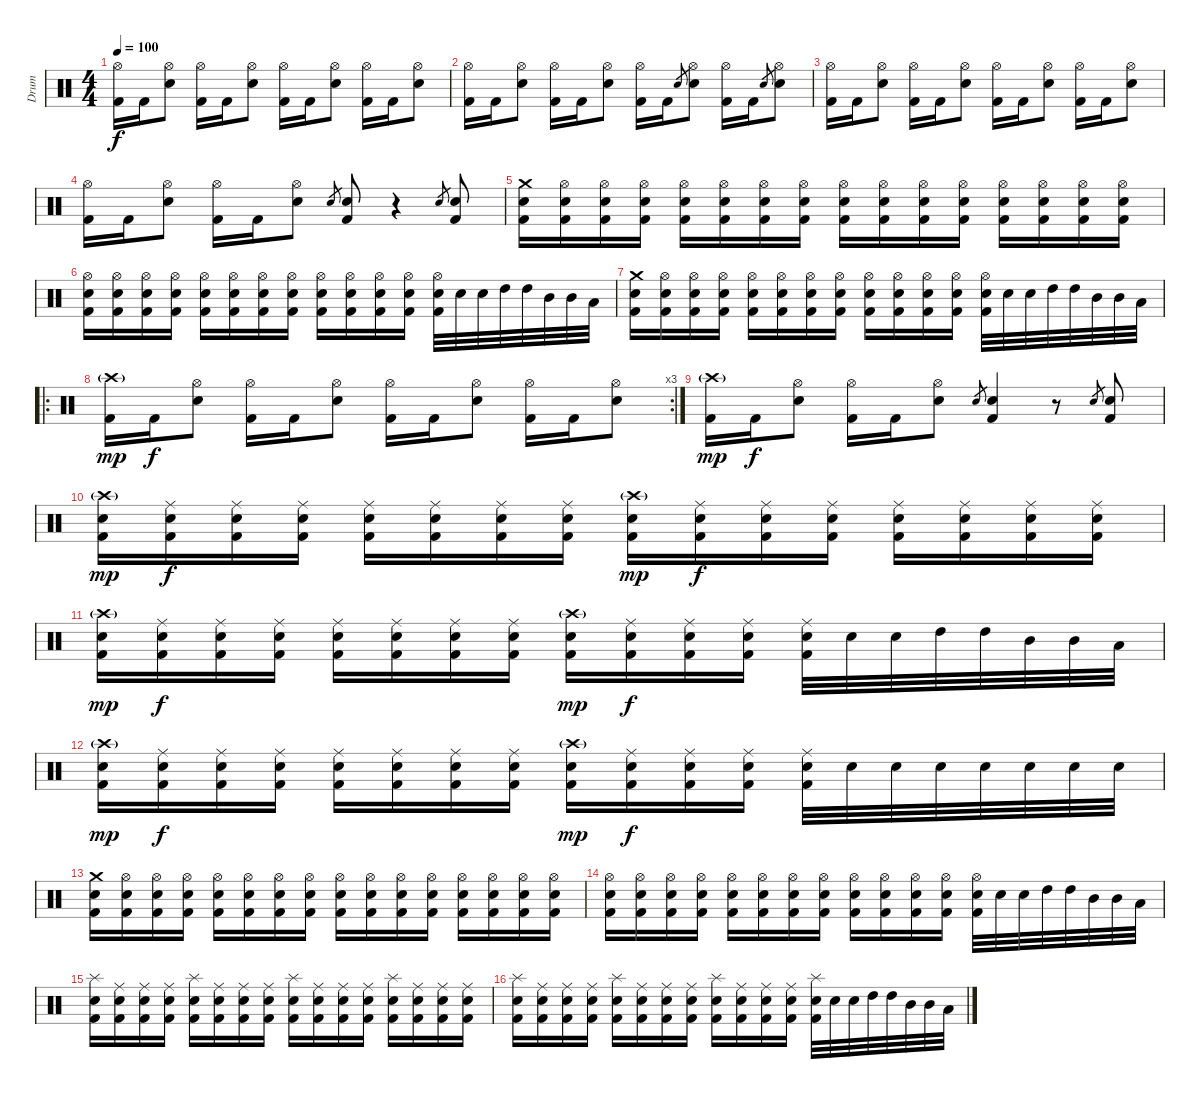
\track ("Drum" "Drum") {instrument percussion}
\staff {score}
\articulation defaults
\ts (4 4)
\tempo 100
\clef neutral
\ks c
("Hi-Hat (open)" "Kick (hit) 2").16{dy f} "Kick (hit) 2".16 ("Hi-Hat (open)" "Electric Snare (hit)").8 ("Hi-Hat (open)" "Kick (hit) 2").16 "Kick (hit) 2".16 ("Hi-Hat (open)" "Electric Snare (hit)").8 ("Hi-Hat (open)" "Kick (hit) 2").16 "Kick (hit) 2".16 ("Hi-Hat (open)" "Electric Snare (hit)").8 ("Hi-Hat (open)" "Kick (hit) 2").16 "Kick (hit) 2".16 ("Hi-Hat (open)" "Electric Snare (hit)").8 |
("Hi-Hat (open)" "Kick (hit) 2").16 "Kick (hit) 2".16 ("Hi-Hat (open)" "Electric Snare (hit)").8 ("Hi-Hat (open)" "Kick (hit) 2").16 "Kick (hit) 2".16 ("Hi-Hat (open)" "Electric Snare (hit)").8 ("Hi-Hat (open)" "Kick (hit) 2").16 "Kick (hit) 2".16 "Electric Snare (hit)".8{gr} ("Hi-Hat (open)" "Electric Snare (hit)").8 ("Hi-Hat (open)" "Kick (hit) 2").16 "Kick (hit) 2".16 "Electric Snare (hit)".8{gr} ("Hi-Hat (open)" "Electric Snare (hit)").8 |
("Hi-Hat (open)" "Kick (hit) 2").16 "Kick (hit) 2".16 ("Hi-Hat (open)" "Electric Snare (hit)").8 ("Hi-Hat (open)" "Kick (hit) 2").16 "Kick (hit) 2".16 ("Hi-Hat (open)" "Electric Snare (hit)").8 ("Hi-Hat (open)" "Kick (hit) 2").16 "Kick (hit) 2".16 ("Hi-Hat (open)" "Electric Snare (hit)").8 ("Hi-Hat (open)" "Kick (hit) 2").16 "Kick (hit) 2".16 ("Hi-Hat (open)" "Electric Snare (hit)").8 |
("Hi-Hat (open)" "Kick (hit) 2").16 "Kick (hit) 2".16 ("Hi-Hat (open)" "Electric Snare (hit)").8 ("Hi-Hat (open)" "Kick (hit) 2").16 "Kick (hit) 2".16 ("Hi-Hat (open)" "Electric Snare (hit)").8 "Electric Snare (hit)".8{gr} ("Electric Snare (hit)" "Kick (hit) 2").8 r.4 "Electric Snare (hit)".8{gr} ("Electric Snare (hit)" "Kick (hit) 2").8 |
("Crash medium (hit)" "Electric Snare (hit)" "Kick (hit) 2").16 ("Hi-Hat (open)" "Electric Snare (hit)" "Kick (hit) 2").16 ("Hi-Hat (open)" "Electric Snare (hit)" "Kick (hit) 2").16 ("Hi-Hat (open)" "Electric Snare (hit)" "Kick (hit) 2").16 ("Hi-Hat (open)" "Electric Snare (hit)" "Kick (hit) 2").16 ("Hi-Hat (open)" "Electric Snare (hit)" "Kick (hit) 2").16 ("Hi-Hat (open)" "Electric Snare (hit)" "Kick (hit) 2").16 ("Hi-Hat (open)" "Electric Snare (hit)" "Kick (hit) 2").16 ("Hi-Hat (open)" "Electric Snare (hit)" "Kick (hit) 2").16 ("Hi-Hat (open)" "Electric Snare (hit)" "Kick (hit) 2").16 ("Hi-Hat (open)" "Electric Snare (hit)" "Kick (hit) 2").16 ("Hi-Hat (open)" "Electric Snare (hit)" "Kick (hit) 2").16 ("Hi-Hat (open)" "Electric Snare (hit)" "Kick (hit) 2").16 ("Hi-Hat (open)" "Electric Snare (hit)" "Kick (hit) 2").16 ("Hi-Hat (open)" "Electric Snare (hit)" "Kick (hit) 2").16 ("Hi-Hat (open)" "Electric Snare (hit)" "Kick (hit) 2").16 |
("Hi-Hat (open)" "Electric Snare (hit)" "Kick (hit) 2").16 ("Hi-Hat (open)" "Electric Snare (hit)" "Kick (hit) 2").16 ("Hi-Hat (open)" "Electric Snare (hit)" "Kick (hit) 2").16 ("Hi-Hat (open)" "Electric Snare (hit)" "Kick (hit) 2").16 ("Hi-Hat (open)" "Electric Snare (hit)" "Kick (hit) 2").16 ("Hi-Hat (open)" "Electric Snare (hit)" "Kick (hit) 2").16 ("Hi-Hat (open)" "Electric Snare (hit)" "Kick (hit) 2").16 ("Hi-Hat (open)" "Electric Snare (hit)" "Kick (hit) 2").16 ("Hi-Hat (open)" "Electric Snare (hit)" "Kick (hit) 2").16 ("Hi-Hat (open)" "Electric Snare (hit)" "Kick (hit) 2").16 ("Hi-Hat (open)" "Electric Snare (hit)" "Kick (hit) 2").16 ("Hi-Hat (open)" "Electric Snare (hit)" "Kick (hit) 2").16 ("Hi-Hat (open)" "Electric Snare (hit)" "Kick (hit) 2").32 "Electric Snare (hit)".32 "Electric Snare (hit)".32 "High Tom (hit)".32 "High Tom (hit)".32 "Mid Tom (hit)".32 "Mid Tom (hit)".32 "Low Tom (hit)".32 |
("Crash medium (hit)" "Electric Snare (hit)" "Kick (hit) 2").16 ("Hi-Hat (open)" "Electric Snare (hit)" "Kick (hit) 2").16 ("Hi-Hat (open)" "Electric Snare (hit)" "Kick (hit) 2").16 ("Hi-Hat (open)" "Electric Snare (hit)" "Kick (hit) 2").16 ("Hi-Hat (open)" "Electric Snare (hit)" "Kick (hit) 2").16 ("Hi-Hat (open)" "Electric Snare (hit)" "Kick (hit) 2").16 ("Hi-Hat (open)" "Electric Snare (hit)" "Kick (hit) 2").16 ("Hi-Hat (open)" "Electric Snare (hit)" "Kick (hit) 2").16 ("Hi-Hat (open)" "Electric Snare (hit)" "Kick (hit) 2").16 ("Hi-Hat (open)" "Electric Snare (hit)" "Kick (hit) 2").16 ("Hi-Hat (open)" "Electric Snare (hit)" "Kick (hit) 2").16 ("Hi-Hat (open)" "Electric Snare (hit)" "Kick (hit) 2").16 ("Hi-Hat (open)" "Electric Snare (hit)" "Kick (hit) 2").32 "Electric Snare (hit)".32 "Electric Snare (hit)".32 "High Tom (hit)".32 "High Tom (hit)".32 "Mid Tom (hit)".32 "Mid Tom (hit)".32 "Low Tom (hit)".32 |
\ro
\rc 3
("Crash high (hit)"{g} "Kick (hit) 2").16{dy mp} "Kick (hit) 2".16{dy f} ("Hi-Hat (open)" "Electric Snare (hit)").8 ("Hi-Hat (open)" "Kick (hit) 2").16 "Kick (hit) 2".16 ("Hi-Hat (open)" "Electric Snare (hit)").8 ("Hi-Hat (open)" "Kick (hit) 2").16 "Kick (hit) 2".16 ("Hi-Hat (open)" "Electric Snare (hit)").8 ("Hi-Hat (open)" "Kick (hit) 2").16 "Kick (hit) 2".16 ("Hi-Hat (open)" "Electric Snare (hit)").8 |
("Crash high (hit)"{g} "Kick (hit) 2").16{dy mp} "Kick (hit) 2".16{dy f} ("Hi-Hat (open)" "Electric Snare (hit)").8 ("Hi-Hat (open)" "Kick (hit) 2").16 "Kick (hit) 2".16 ("Hi-Hat (open)" "Electric Snare (hit)").8 "Electric Snare (hit)".8{gr} ("Electric Snare (hit)" "Kick (hit) 2").4 r.8 "Electric Snare (hit)".8{gr} ("Electric Snare (hit)" "Kick (hit) 2").8 |
("Crash high (hit)"{g} "Electric Snare (hit)" "Kick (hit) 2").16{dy mp} ("Ride (middle)" "Electric Snare (hit)" "Kick (hit) 2").16{dy f} ("Ride (middle)" "Electric Snare (hit)" "Kick (hit) 2").16 ("Ride (middle)" "Electric Snare (hit)" "Kick (hit) 2").16 ("Ride (middle)" "Electric Snare (hit)" "Kick (hit) 2").16 ("Ride (middle)" "Electric Snare (hit)" "Kick (hit) 2").16 ("Ride (middle)" "Electric Snare (hit)" "Kick (hit) 2").16 ("Ride (middle)" "Electric Snare (hit)" "Kick (hit) 2").16 ("Crash high (hit)"{g} "Electric Snare (hit)" "Kick (hit) 2").16{dy mp} ("Ride (middle)" "Electric Snare (hit)" "Kick (hit) 2").16{dy f} ("Ride (middle)" "Electric Snare (hit)" "Kick (hit) 2").16 ("Ride (middle)" "Electric Snare (hit)" "Kick (hit) 2").16 ("Ride (middle)" "Electric Snare (hit)" "Kick (hit) 2").16 ("Ride (middle)" "Electric Snare (hit)" "Kick (hit) 2").16 ("Ride (middle)" "Electric Snare (hit)" "Kick (hit) 2").16 ("Ride (middle)" "Electric Snare (hit)" "Kick (hit) 2").16 |
("Crash high (hit)"{g} "Electric Snare (hit)" "Kick (hit) 2").16{dy mp} ("Ride (middle)" "Electric Snare (hit)" "Kick (hit) 2").16{dy f} ("Ride (middle)" "Electric Snare (hit)" "Kick (hit) 2").16 ("Ride (middle)" "Electric Snare (hit)" "Kick (hit) 2").16 ("Ride (middle)" "Electric Snare (hit)" "Kick (hit) 2").16 ("Ride (middle)" "Electric Snare (hit)" "Kick (hit) 2").16 ("Ride (middle)" "Electric Snare (hit)" "Kick (hit) 2").16 ("Ride (middle)" "Electric Snare (hit)" "Kick (hit) 2").16 ("Crash high (hit)"{g} "Electric Snare (hit)" "Kick (hit) 2").16{dy mp} ("Ride (middle)" "Electric Snare (hit)" "Kick (hit) 2").16{dy f} ("Ride (middle)" "Electric Snare (hit)" "Kick (hit) 2").16 ("Ride (middle)" "Electric Snare (hit)" "Kick (hit) 2").16 ("Ride (middle)" "Electric Snare (hit)" "Kick (hit) 2").32 "Electric Snare (hit)".32 "Electric Snare (hit)".32 "High Tom (hit)".32 "High Tom (hit)".32 "Mid Tom (hit)".32 "Mid Tom (hit)".32 "Low Tom (hit)".32 |
("Crash high (hit)"{g} "Electric Snare (hit)" "Kick (hit) 2").16{dy mp} ("Ride (middle)" "Electric Snare (hit)" "Kick (hit) 2").16{dy f} ("Ride (middle)" "Electric Snare (hit)" "Kick (hit) 2").16 ("Ride (middle)" "Electric Snare (hit)" "Kick (hit) 2").16 ("Ride (middle)" "Electric Snare (hit)" "Kick (hit) 2").16 ("Ride (middle)" "Electric Snare (hit)" "Kick (hit) 2").16 ("Ride (middle)" "Electric Snare (hit)" "Kick (hit) 2").16 ("Ride (middle)" "Electric Snare (hit)" "Kick (hit) 2").16 ("Crash high (hit)"{g} "Electric Snare (hit)" "Kick (hit) 2").16{dy mp} ("Ride (middle)" "Electric Snare (hit)" "Kick (hit) 2").16{dy f} ("Ride (middle)" "Electric Snare (hit)" "Kick (hit) 2").16 ("Ride (middle)" "Electric Snare (hit)" "Kick (hit) 2").16 ("Ride (middle)" "Electric Snare (hit)" "Kick (hit) 2").32 "Electric Snare (hit)".32 "Electric Snare (hit)".32 "Electric Snare (hit)".32 "Electric Snare (hit)".32 "Electric Snare (hit)".32 "Electric Snare (hit)".32 "Electric Snare (hit)".32 |
("Crash medium (hit)" "Electric Snare (hit)" "Kick (hit) 2").16 ("Hi-Hat (open)" "Electric Snare (hit)" "Kick (hit) 2").16 ("Hi-Hat (open)" "Electric Snare (hit)" "Kick (hit) 2").16 ("Hi-Hat (open)" "Electric Snare (hit)" "Kick (hit) 2").16 ("Hi-Hat (open)" "Electric Snare (hit)" "Kick (hit) 2").16 ("Hi-Hat (open)" "Electric Snare (hit)" "Kick (hit) 2").16 ("Hi-Hat (open)" "Electric Snare (hit)" "Kick (hit) 2").16 ("Hi-Hat (open)" "Electric Snare (hit)" "Kick (hit) 2").16 ("Hi-Hat (open)" "Electric Snare (hit)" "Kick (hit) 2").16 ("Hi-Hat (open)" "Electric Snare (hit)" "Kick (hit) 2").16 ("Hi-Hat (open)" "Electric Snare (hit)" "Kick (hit) 2").16 ("Hi-Hat (open)" "Electric Snare (hit)" "Kick (hit) 2").16 ("Hi-Hat (open)" "Electric Snare (hit)" "Kick (hit) 2").16 ("Hi-Hat (open)" "Electric Snare (hit)" "Kick (hit) 2").16 ("Hi-Hat (open)" "Electric Snare (hit)" "Kick (hit) 2").16 ("Hi-Hat (open)" "Electric Snare (hit)" "Kick (hit) 2").16 |
("Hi-Hat (open)" "Electric Snare (hit)" "Kick (hit) 2").16 ("Hi-Hat (open)" "Electric Snare (hit)" "Kick (hit) 2").16 ("Hi-Hat (open)" "Electric Snare (hit)" "Kick (hit) 2").16 ("Hi-Hat (open)" "Electric Snare (hit)" "Kick (hit) 2").16 ("Hi-Hat (open)" "Electric Snare (hit)" "Kick (hit) 2").16 ("Hi-Hat (open)" "Electric Snare (hit)" "Kick (hit) 2").16 ("Hi-Hat (open)" "Electric Snare (hit)" "Kick (hit) 2").16 ("Hi-Hat (open)" "Electric Snare (hit)" "Kick (hit) 2").16 ("Hi-Hat (open)" "Electric Snare (hit)" "Kick (hit) 2").16 ("Hi-Hat (open)" "Electric Snare (hit)" "Kick (hit) 2").16 ("Hi-Hat (open)" "Electric Snare (hit)" "Kick (hit) 2").16 ("Hi-Hat (open)" "Electric Snare (hit)" "Kick (hit) 2").16 ("Hi-Hat (open)" "Electric Snare (hit)" "Kick (hit) 2").32 "Electric Snare (hit)".32 "Electric Snare (hit)".32 "High Tom (hit)".32 "High Tom (hit)".32 "Mid Tom (hit)".32 "Mid Tom (hit)".32 "Low Tom (hit)".32 |
("Splash (hit)" "Electric Snare (hit)" "Kick (hit) 2").16 ("Ride (middle)" "Electric Snare (hit)" "Kick (hit) 2").16 ("Ride (middle)" "Electric Snare (hit)" "Kick (hit) 2").16 ("Ride (middle)" "Electric Snare (hit)" "Kick (hit) 2").16 ("Splash (hit)" "Electric Snare (hit)" "Kick (hit) 2").16 ("Ride (middle)" "Electric Snare (hit)" "Kick (hit) 2").16 ("Ride (middle)" "Electric Snare (hit)" "Kick (hit) 2").16 ("Ride (middle)" "Electric Snare (hit)" "Kick (hit) 2").16 ("Splash (hit)" "Electric Snare (hit)" "Kick (hit) 2").16 ("Ride (middle)" "Electric Snare (hit)" "Kick (hit) 2").16 ("Ride (middle)" "Electric Snare (hit)" "Kick (hit) 2").16 ("Ride (middle)" "Electric Snare (hit)" "Kick (hit) 2").16 ("Splash (hit)" "Electric Snare (hit)" "Kick (hit) 2").16 ("Ride (middle)" "Electric Snare (hit)" "Kick (hit) 2").16 ("Ride (middle)" "Electric Snare (hit)" "Kick (hit) 2").16 ("Ride (middle)" "Electric Snare (hit)" "Kick (hit) 2").16 |
("Splash (hit)" "Electric Snare (hit)" "Kick (hit) 2").16 ("Ride (middle)" "Electric Snare (hit)" "Kick (hit) 2").16 ("Ride (middle)" "Electric Snare (hit)" "Kick (hit) 2").16 ("Ride (middle)" "Electric Snare (hit)" "Kick (hit) 2").16 ("Splash (hit)" "Electric Snare (hit)" "Kick (hit) 2").16 ("Ride (middle)" "Electric Snare (hit)" "Kick (hit) 2").16 ("Ride (middle)" "Electric Snare (hit)" "Kick (hit) 2").16 ("Ride (middle)" "Electric Snare (hit)" "Kick (hit) 2").16 ("Splash (hit)" "Electric Snare (hit)" "Kick (hit) 2").16 ("Ride (middle)" "Electric Snare (hit)" "Kick (hit) 2").16 ("Ride (middle)" "Electric Snare (hit)" "Kick (hit) 2").16 ("Ride (middle)" "Electric Snare (hit)" "Kick (hit) 2").16 ("Splash (hit)" "Electric Snare (hit)" "Kick (hit) 2").32 "Electric Snare (hit)".32 "Electric Snare (hit)".32 "High Tom (hit)".32 "High Tom (hit)".32 "Mid Tom (hit)".32 "Mid Tom (hit)".32 "Low Tom (hit)".32
